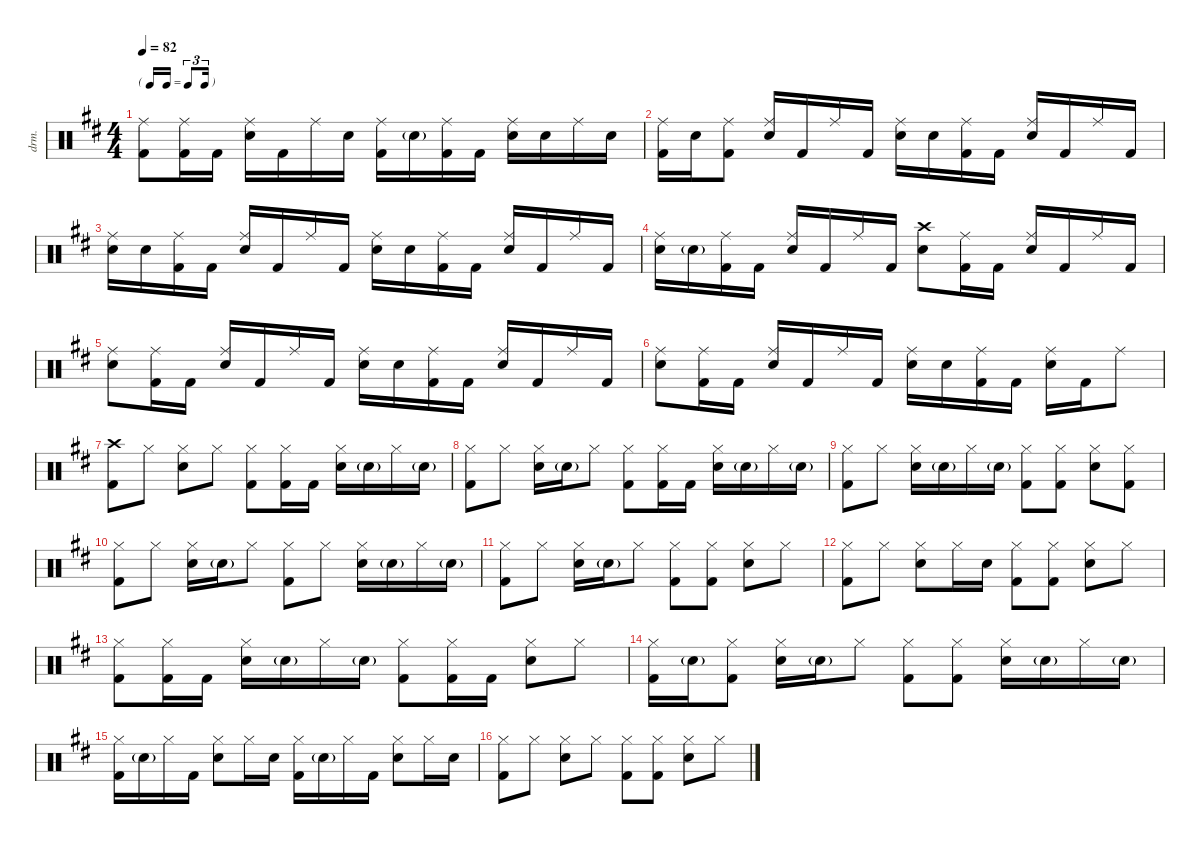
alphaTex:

\defaultSystemsLayout 4
\hideDynamics
\bracketExtendMode nobrackets
\otherSystemsTrackNameOrientation horizontal
\track ("Buddy" "drm.") {instrument percussion}
\staff {score}
\articulation defaults
\ts (4 4)
\tf triplet16th
\tempo 82
\clef neutral
\ks d
("Ride (middle)"{acc forcenatural} "Kick (hit) 2"{acc forcenatural}).8{dy f beam Down} ("Ride (middle)"{acc forcenatural} "Kick (hit) 2"{acc forcenatural}).16{beam Down} "Kick (hit) 2"{acc forcenatural}.16{beam Down} ("Ride (middle)"{acc forcenatural} "Snare (hit) 2"{acc forcenatural}).16{beam Down} "Kick (hit) 2"{acc forcenatural}.16{beam Down} "Ride (middle)"{acc forcenatural}.16{beam Down} "Snare (hit) 2"{acc forcenatural}.16{beam Down} ("Ride (middle)"{acc forcenatural} "Kick (hit) 2"{acc forcenatural}).16{beam Down} "Snare (hit) 2"{g acc forcenatural}.16{dy mf beam Down} ("Ride (middle)"{acc forcenatural} "Kick (hit) 2"{acc forcenatural}).16{dy f beam Down} "Kick (hit) 2"{acc forcenatural}.16{beam Down} ("Ride (middle)"{acc forcenatural} "Snare (hit) 2"{acc forcenatural}).16{beam Down} "Snare (hit) 2"{acc forcenatural}.16{beam Down} "Ride (middle)"{acc forcenatural}.16{beam Down} "Snare (hit) 2"{acc forcenatural}.16{beam Down} |
("Ride (middle)"{acc forcenatural} "Kick (hit) 2"{acc forcenatural}).16{beam Down} "Snare (hit) 2"{acc forcenatural}.16{beam Down} ("Ride (middle)"{acc forcenatural} "Kick (hit) 2"{acc forcenatural}).8{beam Down} ("Ride (middle)"{acc forcenatural} "Snare (hit) 2"{acc forcenatural}).16{beam Up} "Kick (hit) 2"{acc forcenatural}.16{beam Up} "Ride (middle)"{acc forcenatural}.16{beam Up} "Kick (hit) 2"{acc forcenatural}.16{beam Up} ("Ride (middle)"{acc forcenatural} "Snare (hit) 2"{acc forcenatural}).16{beam Down} "Snare (hit) 2"{acc forcenatural}.16{beam Down} ("Ride (middle)"{acc forcenatural} "Kick (hit) 2"{acc forcenatural}).16{beam Down} "Kick (hit) 2"{acc forcenatural}.16{beam Down} ("Ride (middle)"{acc forcenatural} "Snare (hit) 2"{acc forcenatural}).16{beam Up} "Kick (hit) 2"{acc forcenatural}.16{beam Up} "Ride (middle)"{acc forcenatural}.16{beam Up} "Kick (hit) 2"{acc forcenatural}.16{beam Up} |
("Ride (middle)"{acc forcenatural} "Snare (hit) 2"{acc forcenatural}).16{beam Down} "Snare (hit) 2"{acc forcenatural}.16{beam Down} ("Ride (middle)"{acc forcenatural} "Kick (hit) 2"{acc forcenatural}).16{beam Down} "Kick (hit) 2"{acc forcenatural}.16{beam Down} ("Ride (middle)"{acc forcenatural} "Snare (hit) 2"{acc forcenatural}).16{beam Up} "Kick (hit) 2"{acc forcenatural}.16{beam Up} "Ride (middle)"{acc forcenatural}.16{beam Up} "Kick (hit) 2"{acc forcenatural}.16{beam Up} ("Ride (middle)"{acc forcenatural} "Snare (hit) 2"{acc forcenatural}).16{beam Down} "Snare (hit) 2"{acc forcenatural}.16{beam Down} ("Ride (middle)"{acc forcenatural} "Kick (hit) 2"{acc forcenatural}).16{beam Down} "Kick (hit) 2"{acc forcenatural}.16{beam Down} ("Ride (middle)"{acc forcenatural} "Snare (hit) 2"{acc forcenatural}).16{beam Up} "Kick (hit) 2"{acc forcenatural}.16{beam Up} "Ride (middle)"{acc forcenatural}.16{beam Up} "Kick (hit) 2"{acc forcenatural}.16{beam Up} |
("Ride (middle)"{acc forcenatural} "Snare (hit) 2"{acc forcenatural}).16{beam Down} "Snare (hit) 2"{g acc forcenatural}.16{dy mp beam Down} ("Ride (middle)"{acc forcenatural} "Kick (hit) 2"{acc forcenatural}).16{dy f beam Down} "Kick (hit) 2"{acc forcenatural}.16{beam Down} ("Ride (middle)"{acc forcenatural} "Snare (hit) 2"{acc forcenatural}).16{beam Up} "Kick (hit) 2"{acc forcenatural}.16{beam Up} "Ride (middle)"{acc forcenatural}.16{beam Up} "Kick (hit) 2"{acc forcenatural}.16{beam Up} ("Crash high (hit)"{acc forcenatural} "Snare (hit) 2"{acc forcenatural}).8{beam Down} ("Ride (middle)"{acc forcenatural} "Kick (hit) 2"{acc forcenatural}).16{beam Down} "Kick (hit) 2"{acc forcenatural}.16{beam Down} ("Ride (middle)"{acc forcenatural} "Snare (hit) 2"{acc forcenatural}).16{beam Up} "Kick (hit) 2"{acc forcenatural}.16{beam Up} "Ride (middle)"{acc forcenatural}.16{beam Up} "Kick (hit) 2"{acc forcenatural}.16{beam Up} |
("Ride (middle)"{acc forcenatural} "Snare (hit) 2"{acc forcenatural}).8{beam Down} ("Ride (middle)"{acc forcenatural} "Kick (hit) 2"{acc forcenatural}).16{beam Down} "Kick (hit) 2"{acc forcenatural}.16{beam Down} ("Ride (middle)"{acc forcenatural} "Snare (hit) 2"{acc forcenatural}).16{beam Up} "Kick (hit) 2"{acc forcenatural}.16{beam Up} "Ride (middle)"{acc forcenatural}.16{beam Up} "Kick (hit) 2"{acc forcenatural}.16{beam Up} ("Ride (middle)"{acc forcenatural} "Snare (hit) 2"{acc forcenatural}).16{beam Down} "Snare (hit) 2"{acc forcenatural}.16{beam Down} ("Ride (middle)"{acc forcenatural} "Kick (hit) 2"{acc forcenatural}).16{beam Down} "Kick (hit) 2"{acc forcenatural}.16{beam Down} ("Ride (middle)"{acc forcenatural} "Snare (hit) 2"{acc forcenatural}).16{beam Up} "Kick (hit) 2"{acc forcenatural}.16{beam Up} "Ride (middle)"{acc forcenatural}.16{beam Up} "Kick (hit) 2"{acc forcenatural}.16{beam Up} |
("Ride (middle)"{acc forcenatural} "Snare (hit) 2"{acc forcenatural}).8{beam Down} ("Ride (middle)"{acc forcenatural} "Kick (hit) 2"{acc forcenatural}).16{beam Down} "Kick (hit) 2"{acc forcenatural}.16{beam Down} ("Ride (middle)"{acc forcenatural} "Snare (hit) 2"{acc forcenatural}).16{beam Up} "Kick (hit) 2"{acc forcenatural}.16{beam Up} "Ride (middle)"{acc forcenatural}.16{beam Up} "Kick (hit) 2"{acc forcenatural}.16{beam Up} ("Ride (middle)"{acc forcenatural} "Snare (hit) 2"{acc forcenatural}).16{beam Down} "Snare (hit) 2"{acc forcenatural}.16{beam Down} ("Ride (middle)"{acc forcenatural} "Kick (hit) 2"{acc forcenatural}).16{beam Down} "Kick (hit) 2"{acc forcenatural}.16{beam Down} ("Ride (middle)"{acc forcenatural} "Snare (hit) 2"{acc forcenatural}).16{beam Down} "Kick (hit) 2"{acc forcenatural}.16{beam Down} "Ride (middle)"{acc forcenatural}.8{beam Down} |
("Crash high (hit)"{acc forcenatural} "Kick (hit) 2"{acc forcenatural}).8{beam Down} "Hi-Hat (closed)"{acc forcenatural}.8{dy mf beam Down} ("Hi-Hat (closed)"{acc forcenatural} "Snare (hit) 2"{acc forcenatural}).8{beam Down} "Hi-Hat (closed)"{acc forcenatural}.8{beam Down} ("Hi-Hat (closed)"{acc forcenatural} "Kick (hit) 2"{acc forcenatural}).8{beam Down} ("Hi-Hat (closed)"{acc forcenatural} "Kick (hit) 2"{acc forcenatural}).16{beam Down} "Kick (hit) 2"{acc forcenatural}.16{beam Down} ("Hi-Hat (closed)"{acc forcenatural} "Snare (hit) 2"{acc forcenatural}).16{beam Down} "Snare (hit) 2"{g acc forcenatural}.16{dy mp beam Down} "Hi-Hat (closed)"{acc forcenatural}.16{dy mf beam Down} "Snare (hit) 2"{g acc forcenatural}.16{dy mp beam Down} |
("Hi-Hat (closed)"{acc forcenatural} "Kick (hit) 2"{acc forcenatural}).8{dy mf beam Down} "Hi-Hat (closed)"{acc forcenatural}.8{beam Down} ("Hi-Hat (closed)"{acc forcenatural} "Snare (hit) 2"{acc forcenatural}).16{beam Down} "Snare (hit) 2"{g acc forcenatural}.16{dy mp beam Down} "Hi-Hat (closed)"{acc forcenatural}.8{dy mf beam Down} ("Hi-Hat (closed)"{acc forcenatural} "Kick (hit) 2"{acc forcenatural}).8{beam Down} ("Hi-Hat (closed)"{acc forcenatural} "Kick (hit) 2"{acc forcenatural}).16{beam Down} "Kick (hit) 2"{acc forcenatural}.16{beam Down} ("Hi-Hat (closed)"{acc forcenatural} "Snare (hit) 2"{acc forcenatural}).16{beam Down} "Snare (hit) 2"{g acc forcenatural}.16{dy mp beam Down} "Hi-Hat (closed)"{acc forcenatural}.16{dy mf beam Down} "Snare (hit) 2"{g acc forcenatural}.16{dy mp beam Down} |
("Hi-Hat (closed)"{acc forcenatural} "Kick (hit) 2"{acc forcenatural}).8{dy mf beam Down} "Hi-Hat (closed)"{acc forcenatural}.8{beam Down} ("Hi-Hat (closed)"{acc forcenatural} "Snare (hit) 2"{acc forcenatural}).16{beam Down} "Snare (hit) 2"{g acc forcenatural}.16{dy mp beam Down} "Hi-Hat (closed)"{acc forcenatural}.16{dy mf beam Down} "Snare (hit) 2"{g acc forcenatural}.16{dy mp beam Down} ("Hi-Hat (closed)"{acc forcenatural} "Kick (hit) 2"{acc forcenatural}).8{dy mf beam Down} ("Hi-Hat (closed)"{acc forcenatural} "Kick (hit) 2"{acc forcenatural}).8{beam Down} ("Hi-Hat (closed)"{acc forcenatural} "Snare (hit) 2"{acc forcenatural}).8{beam Down} ("Hi-Hat (closed)"{acc forcenatural} "Kick (hit) 2"{acc forcenatural}).8{beam Down} |
("Hi-Hat (closed)"{acc forcenatural} "Kick (hit) 2"{acc forcenatural}).8{beam Down} "Hi-Hat (closed)"{acc forcenatural}.8{beam Down} ("Hi-Hat (closed)"{acc forcenatural} "Snare (hit) 2"{acc forcenatural}).16{beam Down} "Snare (hit) 2"{g acc forcenatural}.16{dy mp beam Down} "Hi-Hat (closed)"{acc forcenatural}.8{dy mf beam Down} ("Hi-Hat (closed)"{acc forcenatural} "Kick (hit) 2"{acc forcenatural}).8{beam Down} "Hi-Hat (closed)"{acc forcenatural}.8{beam Down} ("Hi-Hat (closed)"{acc forcenatural} "Snare (hit) 2"{acc forcenatural}).16{beam Down} "Snare (hit) 2"{g acc forcenatural}.16{dy mp beam Down} "Hi-Hat (closed)"{acc forcenatural}.16{dy mf beam Down} "Snare (hit) 2"{g acc forcenatural}.16{dy mp beam Down} |
("Hi-Hat (closed)"{acc forcenatural} "Kick (hit) 2"{acc forcenatural}).8{dy mf beam Down} "Hi-Hat (closed)"{acc forcenatural}.8{beam Down} ("Hi-Hat (closed)"{acc forcenatural} "Snare (hit) 2"{acc forcenatural}).16{beam Down} "Snare (hit) 2"{g acc forcenatural}.16{dy mp beam Down} "Hi-Hat (closed)"{acc forcenatural}.8{dy mf beam Down} ("Hi-Hat (closed)"{acc forcenatural} "Kick (hit) 2"{acc forcenatural}).8{beam Down} ("Hi-Hat (closed)"{acc forcenatural} "Kick (hit) 2"{acc forcenatural}).8{beam Down} ("Hi-Hat (closed)"{acc forcenatural} "Snare (hit) 2"{acc forcenatural}).8{beam Down} "Hi-Hat (closed)"{acc forcenatural}.8{beam Down} |
("Hi-Hat (closed)"{acc forcenatural} "Kick (hit) 2"{acc forcenatural}).8{beam Down} "Hi-Hat (closed)"{acc forcenatural}.8{beam Down} ("Hi-Hat (closed)"{acc forcenatural} "Snare (hit) 2"{acc forcenatural}).8{beam Down} "Hi-Hat (closed)"{acc forcenatural}.16{beam Down} "Snare (hit) 2"{acc forcenatural}.16{beam Down} ("Hi-Hat (closed)"{acc forcenatural} "Kick (hit) 2"{acc forcenatural}).8{beam Down} ("Hi-Hat (closed)"{acc forcenatural} "Kick (hit) 2"{acc forcenatural}).8{beam Down} ("Hi-Hat (closed)"{acc forcenatural} "Snare (hit) 2"{acc forcenatural}).8{beam Down} "Hi-Hat (closed)"{acc forcenatural}.8{beam Down} |
("Hi-Hat (closed)"{acc forcenatural} "Kick (hit) 2"{acc forcenatural}).8{beam Down} ("Hi-Hat (closed)"{acc forcenatural} "Kick (hit) 2"{acc forcenatural}).16{beam Down} "Kick (hit) 2"{acc forcenatural}.16{beam Down} ("Hi-Hat (closed)"{acc forcenatural} "Snare (hit) 2"{acc forcenatural}).16{beam Down} "Snare (hit) 2"{g acc forcenatural}.16{dy mp beam Down} "Hi-Hat (closed)"{acc forcenatural}.16{dy mf beam Down} "Snare (hit) 2"{g acc forcenatural}.16{dy mp beam Down} ("Hi-Hat (closed)"{acc forcenatural} "Kick (hit) 2"{acc forcenatural}).8{dy mf beam Down} ("Hi-Hat (closed)"{acc forcenatural} "Kick (hit) 2"{acc forcenatural}).16{beam Down} "Kick (hit) 2"{acc forcenatural}.16{beam Down} ("Hi-Hat (closed)"{acc forcenatural} "Snare (hit) 2"{acc forcenatural}).8{beam Down} "Hi-Hat (closed)"{acc forcenatural}.8{beam Down} |
("Hi-Hat (closed)"{acc forcenatural} "Kick (hit) 2"{acc forcenatural}).16{beam Down} "Snare (hit) 2"{g acc forcenatural}.16{dy mp beam Down} ("Hi-Hat (closed)"{acc forcenatural} "Kick (hit) 2"{acc forcenatural}).8{dy mf beam Down} ("Hi-Hat (closed)"{acc forcenatural} "Snare (hit) 2"{acc forcenatural}).16{beam Down} "Snare (hit) 2"{g acc forcenatural}.16{dy mp beam Down} "Hi-Hat (closed)"{acc forcenatural}.8{dy mf beam Down} ("Hi-Hat (closed)"{acc forcenatural} "Kick (hit) 2"{acc forcenatural}).8{beam Down} ("Hi-Hat (closed)"{acc forcenatural} "Kick (hit) 2"{acc forcenatural}).8{beam Down} ("Hi-Hat (closed)"{acc forcenatural} "Snare (hit) 2"{acc forcenatural}).16{beam Down} "Snare (hit) 2"{g acc forcenatural}.16{dy mp beam Down} "Hi-Hat (closed)"{acc forcenatural}.16{dy mf beam Down} "Snare (hit) 2"{g acc forcenatural}.16{dy mp beam Down} |
("Hi-Hat (closed)"{acc forcenatural} "Kick (hit) 2"{acc forcenatural}).16{dy mf beam Down} "Snare (hit) 2"{g acc forcenatural}.16{dy mp beam Down} "Hi-Hat (closed)"{acc forcenatural}.16{dy mf beam Down} "Kick (hit) 2"{acc forcenatural}.16{beam Down} ("Hi-Hat (closed)"{acc forcenatural} "Snare (hit) 2"{acc forcenatural}).8{beam Down} "Hi-Hat (closed)"{acc forcenatural}.16{beam Down} "Snare (hit) 2"{acc forcenatural}.16{beam Down} ("Hi-Hat (closed)"{acc forcenatural} "Kick (hit) 2"{acc forcenatural}).16{beam Down} "Snare (hit) 2"{g acc forcenatural}.16{dy mp beam Down} "Hi-Hat (closed)"{acc forcenatural}.16{dy mf beam Down} "Kick (hit) 2"{acc forcenatural}.16{beam Down} ("Hi-Hat (closed)"{acc forcenatural} "Snare (hit) 2"{acc forcenatural}).8{beam Down} "Hi-Hat (closed)"{acc forcenatural}.16{beam Down} "Snare (hit) 2"{acc forcenatural}.16{beam Down} |
("Hi-Hat (closed)"{acc forcenatural} "Kick (hit) 2"{acc forcenatural}).8{beam Down} "Hi-Hat (closed)"{acc forcenatural}.8{beam Down} ("Hi-Hat (closed)"{acc forcenatural} "Snare (hit) 2"{acc forcenatural}).8{beam Down} "Hi-Hat (closed)"{acc forcenatural}.8{beam Down} ("Hi-Hat (closed)"{acc forcenatural} "Kick (hit) 2"{acc forcenatural}).8{beam Down} ("Hi-Hat (closed)"{acc forcenatural} "Kick (hit) 2"{acc forcenatural}).8{beam Down} ("Hi-Hat (closed)"{acc forcenatural} "Snare (hit) 2"{acc forcenatural}).8{beam Down} "Hi-Hat (closed)"{acc forcenatural}.8{beam Down}
